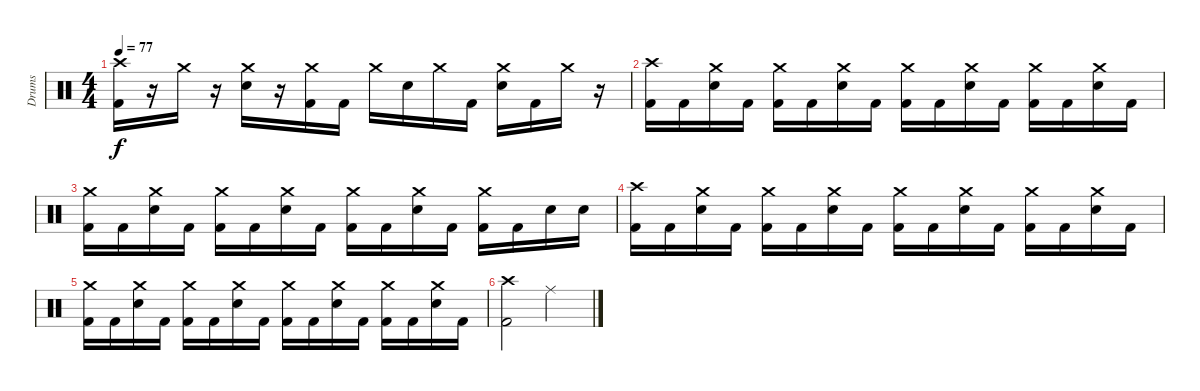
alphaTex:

\track ("Drums" "Drums") {instrument percussion}
\staff {score}
\articulation defaults
\ts (4 4)
\tempo 77
\clef neutral
\ks c
("Crash high (hit)" "Kick (hit) 2").16{dy f} r.16 "Crash medium (hit)".16 r.16 ("Crash medium (hit)" "Snare (hit) 2").16 r.16 ("Crash medium (hit)" "Kick (hit) 2").16 "Kick (hit) 2".16 "Crash medium (hit)".16 "Snare (hit) 2".16 "Crash medium (hit)".16 "Kick (hit) 2".16 ("Crash medium (hit)" "Snare (hit) 2").16 "Kick (hit) 2".16 "Crash medium (hit)".16 r.16 |
("Crash high (hit)" "Kick (hit) 2").16 "Kick (hit) 2".16 ("Crash medium (hit)" "Snare (hit) 2").16 "Kick (hit) 2".16 ("Crash medium (hit)" "Kick (hit) 2").16 "Kick (hit) 2".16 ("Crash medium (hit)" "Snare (hit) 2").16 "Kick (hit) 2".16 ("Crash medium (hit)" "Kick (hit) 2").16 "Kick (hit) 2".16 ("Crash medium (hit)" "Snare (hit) 2").16 "Kick (hit) 2".16 ("Crash medium (hit)" "Kick (hit) 2").16 "Kick (hit) 2".16 ("Crash medium (hit)" "Snare (hit) 2").16 "Kick (hit) 2".16 |
("Crash medium (hit)" "Kick (hit) 2").16 "Kick (hit) 2".16 ("Crash medium (hit)" "Snare (hit) 2").16 "Kick (hit) 2".16 ("Crash medium (hit)" "Kick (hit) 2").16 "Kick (hit) 2".16 ("Crash medium (hit)" "Snare (hit) 2").16 "Kick (hit) 2".16 ("Crash medium (hit)" "Kick (hit) 2").16 "Kick (hit) 2".16 ("Crash medium (hit)" "Snare (hit) 2").16 "Kick (hit) 2".16 ("Crash medium (hit)" "Kick (hit) 2").16 "Kick (hit) 2".16 "Snare (hit) 2".16 "Snare (hit) 2".16 |
("Crash high (hit)" "Kick (hit) 2").16 "Kick (hit) 2".16 ("Crash medium (hit)" "Snare (hit) 2").16 "Kick (hit) 2".16 ("Crash medium (hit)" "Kick (hit) 2").16 "Kick (hit) 2".16 ("Crash medium (hit)" "Snare (hit) 2").16 "Kick (hit) 2".16 ("Crash medium (hit)" "Kick (hit) 2").16 "Kick (hit) 2".16 ("Crash medium (hit)" "Snare (hit) 2").16 "Kick (hit) 2".16 ("Crash medium (hit)" "Kick (hit) 2").16 "Kick (hit) 2".16 ("Crash medium (hit)" "Snare (hit) 2").16 "Kick (hit) 2".16 |
("Crash medium (hit)" "Kick (hit) 2").16 "Kick (hit) 2".16 ("Crash medium (hit)" "Snare (hit) 2").16 "Kick (hit) 2".16 ("Crash medium (hit)" "Kick (hit) 2").16 "Kick (hit) 2".16 ("Crash medium (hit)" "Snare (hit) 2").16 "Kick (hit) 2".16 ("Crash medium (hit)" "Kick (hit) 2").16 "Kick (hit) 2".16 ("Crash medium (hit)" "Snare (hit) 2").16 "Kick (hit) 2".16 ("Crash medium (hit)" "Kick (hit) 2").16 "Kick (hit) 2".16 ("Crash medium (hit)" "Snare (hit) 2").16 "Kick (hit) 2".16 |
("Crash high (hit)" "Kick (hit) 2").2 "Ride (middle)".2
